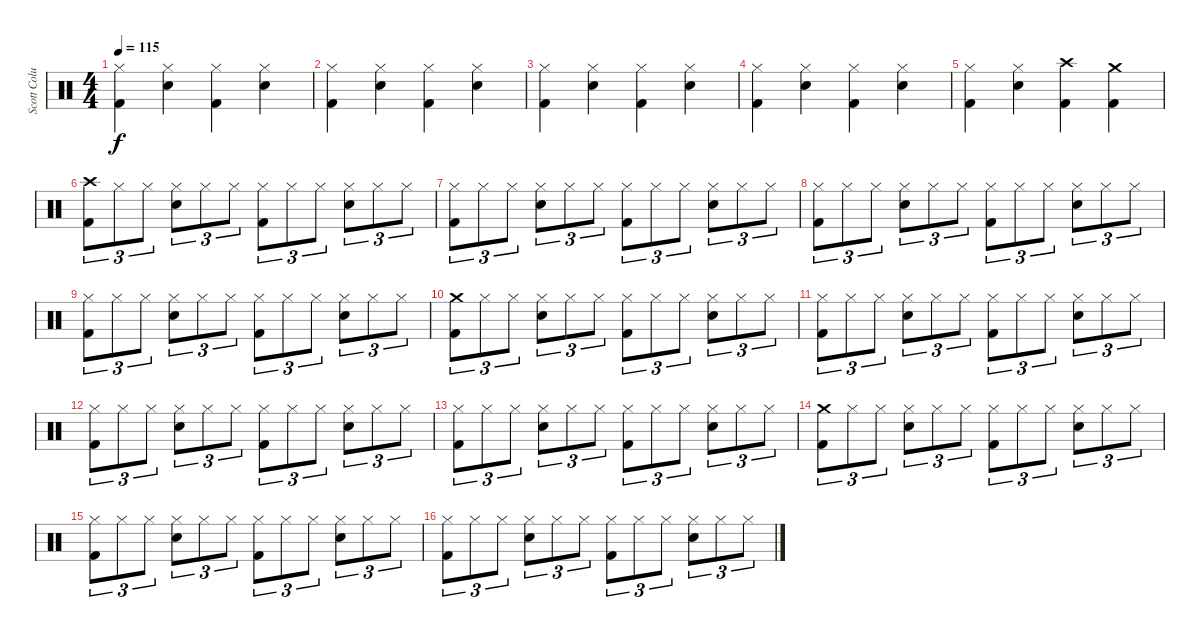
\track ("Scott Columus(Drums)" "Scott Colu") {instrument percussion}
\staff {score}
\articulation defaults
\ts (4 4)
\tempo 115
\clef neutral
\ks c
("Hi-Hat (closed)" "Kick (hit) 2").4{dy f} ("Hi-Hat (closed)" "Snare (hit) 2").4 ("Hi-Hat (closed)" "Kick (hit) 2").4 ("Hi-Hat (closed)" "Snare (hit) 2").4 |
("Hi-Hat (closed)" "Kick (hit) 2").4 ("Hi-Hat (closed)" "Snare (hit) 2").4 ("Hi-Hat (closed)" "Kick (hit) 2").4 ("Hi-Hat (closed)" "Snare (hit) 2").4 |
("Hi-Hat (closed)" "Kick (hit) 2").4 ("Hi-Hat (closed)" "Snare (hit) 2").4 ("Hi-Hat (closed)" "Kick (hit) 2").4 ("Hi-Hat (closed)" "Snare (hit) 2").4 |
("Hi-Hat (closed)" "Kick (hit) 2").4 ("Hi-Hat (closed)" "Snare (hit) 2").4 ("Hi-Hat (closed)" "Kick (hit) 2").4 ("Hi-Hat (closed)" "Snare (hit) 2").4 |
("Hi-Hat (closed)" "Kick (hit) 2").4 ("Hi-Hat (closed)" "Snare (hit) 2").4 ("Crash high (hit)" "Kick (hit) 2").4 ("Crash medium (hit)" "Kick (hit) 2").4 |
("Crash high (hit)" "Kick (hit) 2").8{tu (3 2)} "Hi-Hat (closed)".8{tu (3 2)} "Hi-Hat (closed)".8{tu (3 2)} ("Hi-Hat (closed)" "Snare (hit) 2").8{tu (3 2)} "Hi-Hat (closed)".8{tu (3 2)} "Hi-Hat (closed)".8{tu (3 2)} ("Hi-Hat (closed)" "Kick (hit) 2").8{tu (3 2)} "Hi-Hat (closed)".8{tu (3 2)} "Hi-Hat (closed)".8{tu (3 2)} ("Hi-Hat (closed)" "Snare (hit) 2").8{tu (3 2)} "Hi-Hat (closed)".8{tu (3 2)} "Hi-Hat (closed)".8{tu (3 2)} |
("Hi-Hat (closed)" "Kick (hit) 2").8{tu (3 2)} "Hi-Hat (closed)".8{tu (3 2)} "Hi-Hat (closed)".8{tu (3 2)} ("Hi-Hat (closed)" "Snare (hit) 2").8{tu (3 2)} "Hi-Hat (closed)".8{tu (3 2)} "Hi-Hat (closed)".8{tu (3 2)} ("Hi-Hat (closed)" "Kick (hit) 2").8{tu (3 2)} "Hi-Hat (closed)".8{tu (3 2)} "Hi-Hat (closed)".8{tu (3 2)} ("Hi-Hat (closed)" "Snare (hit) 2").8{tu (3 2)} "Hi-Hat (closed)".8{tu (3 2)} "Hi-Hat (closed)".8{tu (3 2)} |
("Hi-Hat (closed)" "Kick (hit) 2").8{tu (3 2)} "Hi-Hat (closed)".8{tu (3 2)} "Hi-Hat (closed)".8{tu (3 2)} ("Hi-Hat (closed)" "Snare (hit) 2").8{tu (3 2)} "Hi-Hat (closed)".8{tu (3 2)} "Hi-Hat (closed)".8{tu (3 2)} ("Hi-Hat (closed)" "Kick (hit) 2").8{tu (3 2)} "Hi-Hat (closed)".8{tu (3 2)} "Hi-Hat (closed)".8{tu (3 2)} ("Hi-Hat (closed)" "Snare (hit) 2").8{tu (3 2)} "Hi-Hat (closed)".8{tu (3 2)} "Hi-Hat (closed)".8{tu (3 2)} |
("Hi-Hat (closed)" "Kick (hit) 2").8{tu (3 2)} "Hi-Hat (closed)".8{tu (3 2)} "Hi-Hat (closed)".8{tu (3 2)} ("Hi-Hat (closed)" "Snare (hit) 2").8{tu (3 2)} "Hi-Hat (closed)".8{tu (3 2)} "Hi-Hat (closed)".8{tu (3 2)} ("Hi-Hat (closed)" "Kick (hit) 2").8{tu (3 2)} "Hi-Hat (closed)".8{tu (3 2)} "Hi-Hat (closed)".8{tu (3 2)} ("Hi-Hat (closed)" "Snare (hit) 2").8{tu (3 2)} "Hi-Hat (closed)".8{tu (3 2)} "Hi-Hat (closed)".8{tu (3 2)} |
("Crash medium (hit)" "Kick (hit) 2").8{tu (3 2)} "Hi-Hat (closed)".8{tu (3 2)} "Hi-Hat (closed)".8{tu (3 2)} ("Hi-Hat (closed)" "Snare (hit) 2").8{tu (3 2)} "Hi-Hat (closed)".8{tu (3 2)} "Hi-Hat (closed)".8{tu (3 2)} ("Hi-Hat (closed)" "Kick (hit) 2").8{tu (3 2)} "Hi-Hat (closed)".8{tu (3 2)} "Hi-Hat (closed)".8{tu (3 2)} ("Hi-Hat (closed)" "Snare (hit) 2").8{tu (3 2)} "Hi-Hat (closed)".8{tu (3 2)} "Hi-Hat (closed)".8{tu (3 2)} |
("Hi-Hat (closed)" "Kick (hit) 2").8{tu (3 2)} "Hi-Hat (closed)".8{tu (3 2)} "Hi-Hat (closed)".8{tu (3 2)} ("Hi-Hat (closed)" "Snare (hit) 2").8{tu (3 2)} "Hi-Hat (closed)".8{tu (3 2)} "Hi-Hat (closed)".8{tu (3 2)} ("Hi-Hat (closed)" "Kick (hit) 2").8{tu (3 2)} "Hi-Hat (closed)".8{tu (3 2)} "Hi-Hat (closed)".8{tu (3 2)} ("Hi-Hat (closed)" "Snare (hit) 2").8{tu (3 2)} "Hi-Hat (closed)".8{tu (3 2)} "Hi-Hat (closed)".8{tu (3 2)} |
("Hi-Hat (closed)" "Kick (hit) 2").8{tu (3 2)} "Hi-Hat (closed)".8{tu (3 2)} "Hi-Hat (closed)".8{tu (3 2)} ("Hi-Hat (closed)" "Snare (hit) 2").8{tu (3 2)} "Hi-Hat (closed)".8{tu (3 2)} "Hi-Hat (closed)".8{tu (3 2)} ("Hi-Hat (closed)" "Kick (hit) 2").8{tu (3 2)} "Hi-Hat (closed)".8{tu (3 2)} "Hi-Hat (closed)".8{tu (3 2)} ("Hi-Hat (closed)" "Snare (hit) 2").8{tu (3 2)} "Hi-Hat (closed)".8{tu (3 2)} "Hi-Hat (closed)".8{tu (3 2)} |
("Hi-Hat (closed)" "Kick (hit) 2").8{tu (3 2)} "Hi-Hat (closed)".8{tu (3 2)} "Hi-Hat (closed)".8{tu (3 2)} ("Hi-Hat (closed)" "Snare (hit) 2").8{tu (3 2)} "Hi-Hat (closed)".8{tu (3 2)} "Hi-Hat (closed)".8{tu (3 2)} ("Hi-Hat (closed)" "Kick (hit) 2").8{tu (3 2)} "Hi-Hat (closed)".8{tu (3 2)} "Hi-Hat (closed)".8{tu (3 2)} ("Hi-Hat (closed)" "Snare (hit) 2").8{tu (3 2)} "Hi-Hat (closed)".8{tu (3 2)} "Hi-Hat (closed)".8{tu (3 2)} |
("Crash medium (hit)" "Kick (hit) 2").8{tu (3 2)} "Hi-Hat (closed)".8{tu (3 2)} "Hi-Hat (closed)".8{tu (3 2)} ("Hi-Hat (closed)" "Snare (hit) 2").8{tu (3 2)} "Hi-Hat (closed)".8{tu (3 2)} "Hi-Hat (closed)".8{tu (3 2)} ("Hi-Hat (closed)" "Kick (hit) 2").8{tu (3 2)} "Hi-Hat (closed)".8{tu (3 2)} "Hi-Hat (closed)".8{tu (3 2)} ("Hi-Hat (closed)" "Snare (hit) 2").8{tu (3 2)} "Hi-Hat (closed)".8{tu (3 2)} "Hi-Hat (closed)".8{tu (3 2)} |
("Hi-Hat (closed)" "Kick (hit) 2").8{tu (3 2)} "Hi-Hat (closed)".8{tu (3 2)} "Hi-Hat (closed)".8{tu (3 2)} ("Hi-Hat (closed)" "Snare (hit) 2").8{tu (3 2)} "Hi-Hat (closed)".8{tu (3 2)} "Hi-Hat (closed)".8{tu (3 2)} ("Hi-Hat (closed)" "Kick (hit) 2").8{tu (3 2)} "Hi-Hat (closed)".8{tu (3 2)} "Hi-Hat (closed)".8{tu (3 2)} ("Hi-Hat (closed)" "Snare (hit) 2").8{tu (3 2)} "Hi-Hat (closed)".8{tu (3 2)} "Hi-Hat (closed)".8{tu (3 2)} |
("Hi-Hat (closed)" "Kick (hit) 2").8{tu (3 2)} "Hi-Hat (closed)".8{tu (3 2)} "Hi-Hat (closed)".8{tu (3 2)} ("Hi-Hat (closed)" "Snare (hit) 2").8{tu (3 2)} "Hi-Hat (closed)".8{tu (3 2)} "Hi-Hat (closed)".8{tu (3 2)} ("Hi-Hat (closed)" "Kick (hit) 2").8{tu (3 2)} "Hi-Hat (closed)".8{tu (3 2)} "Hi-Hat (closed)".8{tu (3 2)} ("Hi-Hat (closed)" "Snare (hit) 2").8{tu (3 2)} "Hi-Hat (closed)".8{tu (3 2)} "Hi-Hat (closed)".8{tu (3 2)}
